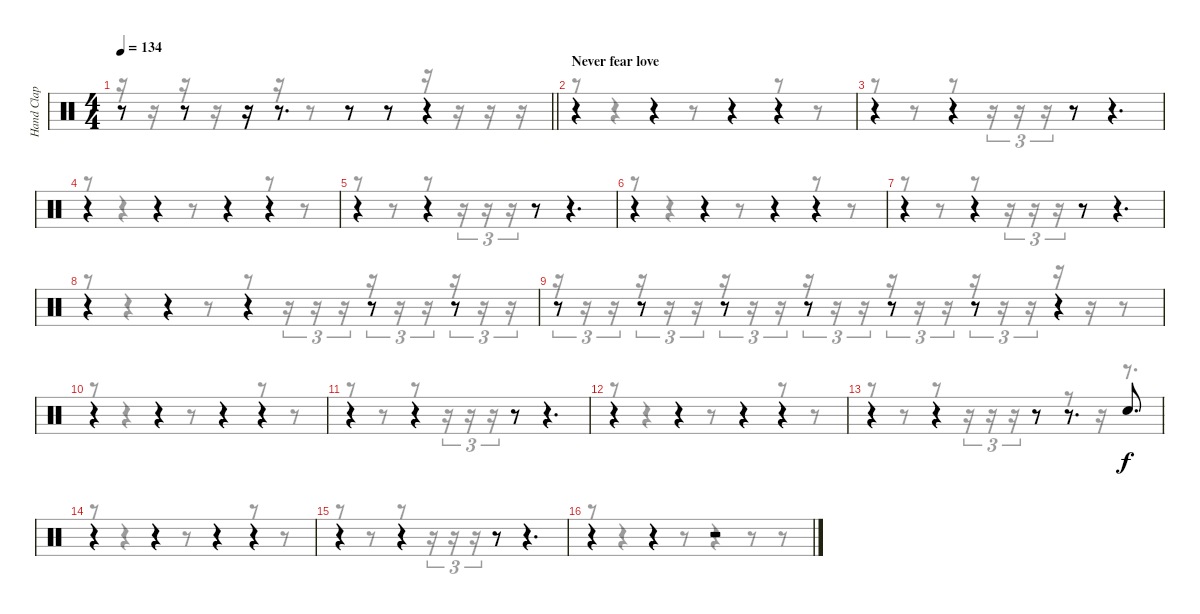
\track ("Hand Clap" "Hand Clap") {instrument percussion}
\staff {score}
\articulation defaults
\voice
\ts (4 4)
\tempo 134
\clef neutral
\barLineRight lightlight
\ks c
r.8{dy f} r.8 r.16 r.8{d} r.8 r.8 r.4 |
\section ("" "Never fear love")
r.4 r.4 r.4 r.4 |
r.4 r.4 r.8 r.4{d} |
r.4 r.4 r.4 r.4 |
r.4 r.4 r.8 r.4{d} |
r.4 r.4 r.4 r.4 |
r.4 r.4 r.8 r.4{d} |
r.4 r.4 r.4 r.8 r.8 |
r.8 r.8 r.8 r.8 r.8 r.8 r.4 |
r.4 r.4 r.4 r.4 |
r.4 r.4 r.8 r.4{d} |
r.4 r.4 r.4 r.4 |
r.4 r.4 r.8 r.8{d} "Hand Clap (hit)".8{d} |
r.4 r.4 r.4 r.4 |
r.4 r.4 r.8 r.4{d} |
r.4 r.4 r.2
\voice
\clef neutral
\ottava regular
\simile none
\barLineRight lightlight
\ks c
r.16{dy f} r.16 r.16 r.16 r.16 r.16 r.8 r.8 r.8 r.16 r.16 r.16 r.16 |
r.8 r.4 r.8 r.4 r.8 r.8 |
r.8 r.8 r.8 r.16{tu (3 2)} r.16{tu (3 2)} r.16{tu (3 2)} r.8 r.4{d} |
r.8 r.4 r.8 r.4 r.8 r.8 |
r.8 r.8 r.8 r.16{tu (3 2)} r.16{tu (3 2)} r.16{tu (3 2)} r.8 r.4{d} |
r.8 r.4 r.8 r.4 r.8 r.8 |
r.8 r.8 r.8 r.16{tu (3 2)} r.16{tu (3 2)} r.16{tu (3 2)} r.8 r.4{d} |
r.8 r.4 r.8 r.8 r.16{tu (3 2)} r.16{tu (3 2)} r.16{tu (3 2)} r.16{tu (3 2)} r.16{tu (3 2)} r.16{tu (3 2)} r.16{tu (3 2)} r.16{tu (3 2)} r.16{tu (3 2)} |
r.16{tu (3 2)} r.16{tu (3 2)} r.16{tu (3 2)} r.16{tu (3 2)} r.16{tu (3 2)} r.16{tu (3 2)} r.16{tu (3 2)} r.16{tu (3 2)} r.16{tu (3 2)} r.16{tu (3 2)} r.16{tu (3 2)} r.16{tu (3 2)} r.16{tu (3 2)} r.16{tu (3 2)} r.16{tu (3 2)} r.16{tu (3 2)} r.16{tu (3 2)} r.16{tu (3 2)} r.16 r.16 r.8 |
r.8 r.4 r.8 r.4 r.8 r.8 |
r.8 r.8 r.8 r.16{tu (3 2)} r.16{tu (3 2)} r.16{tu (3 2)} r.8 r.4{d} |
r.8 r.4 r.8 r.4 r.8 r.8 |
r.8 r.8 r.8 r.16{tu (3 2)} r.16{tu (3 2)} r.16{tu (3 2)} r.8 r.8 r.16 r.8{d} |
r.8 r.4 r.8 r.4 r.8 r.8 |
r.8 r.8 r.8 r.16{tu (3 2)} r.16{tu (3 2)} r.16{tu (3 2)} r.8 r.4{d} |
r.8 r.4 r.8 r.4 r.8 r.8
